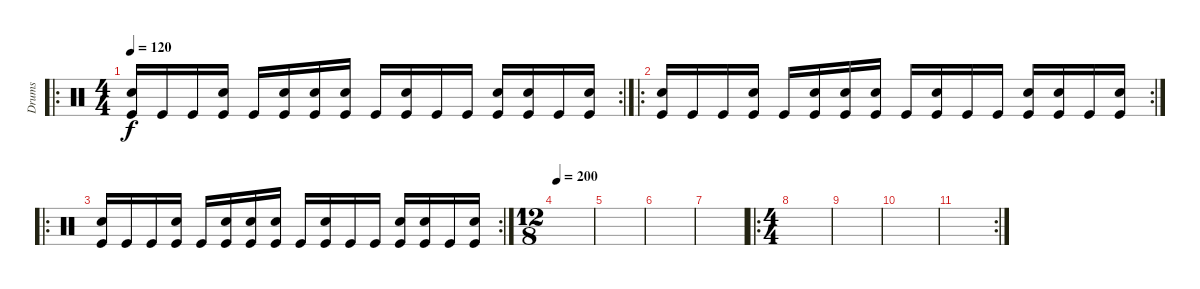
\track ("Drums" "Drums") {instrument percussion}
\staff {score}
\articulation defaults
\ro
\rc 2
\ts (4 4)
\tempo 120
\clef neutral
\ks c
("Snare (hit) 2" "Kick (hit)").16{dy f} "Kick (hit)".16 "Kick (hit)".16 ("Snare (hit) 2" "Kick (hit)").16 "Kick (hit)".16 ("Snare (hit) 2" "Kick (hit)").16 ("Snare (hit) 2" "Kick (hit)").16 ("Snare (hit) 2" "Kick (hit)").16 "Kick (hit)".16 ("Snare (hit) 2" "Kick (hit)").16 "Kick (hit)".16 "Kick (hit)".16 ("Snare (hit) 2" "Kick (hit)").16 ("Snare (hit) 2" "Kick (hit)").16 "Kick (hit)".16 ("Snare (hit) 2" "Kick (hit)").16 |
\ro
\rc 2
("Snare (hit) 2" "Kick (hit)").16 "Kick (hit)".16 "Kick (hit)".16 ("Snare (hit) 2" "Kick (hit)").16 "Kick (hit)".16 ("Snare (hit) 2" "Kick (hit)").16 ("Snare (hit) 2" "Kick (hit)").16 ("Snare (hit) 2" "Kick (hit)").16 "Kick (hit)".16 ("Snare (hit) 2" "Kick (hit)").16 "Kick (hit)".16 "Kick (hit)".16 ("Snare (hit) 2" "Kick (hit)").16 ("Snare (hit) 2" "Kick (hit)").16 "Kick (hit)".16 ("Snare (hit) 2" "Kick (hit)").16 |
\ro
\rc 2
("Snare (hit) 2" "Kick (hit)").16 "Kick (hit)".16 "Kick (hit)".16 ("Snare (hit) 2" "Kick (hit)").16 "Kick (hit)".16 ("Snare (hit) 2" "Kick (hit)").16 ("Snare (hit) 2" "Kick (hit)").16 ("Snare (hit) 2" "Kick (hit)").16 "Kick (hit)".16 ("Snare (hit) 2" "Kick (hit)").16 "Kick (hit)".16 "Kick (hit)".16 ("Snare (hit) 2" "Kick (hit)").16 ("Snare (hit) 2" "Kick (hit)").16 "Kick (hit)".16 ("Snare (hit) 2" "Kick (hit)").16 |
\ts (12 8)
\tempo 200
|
|
|
|
\ro
\ts (4 4)
|
|
|
\rc 2
